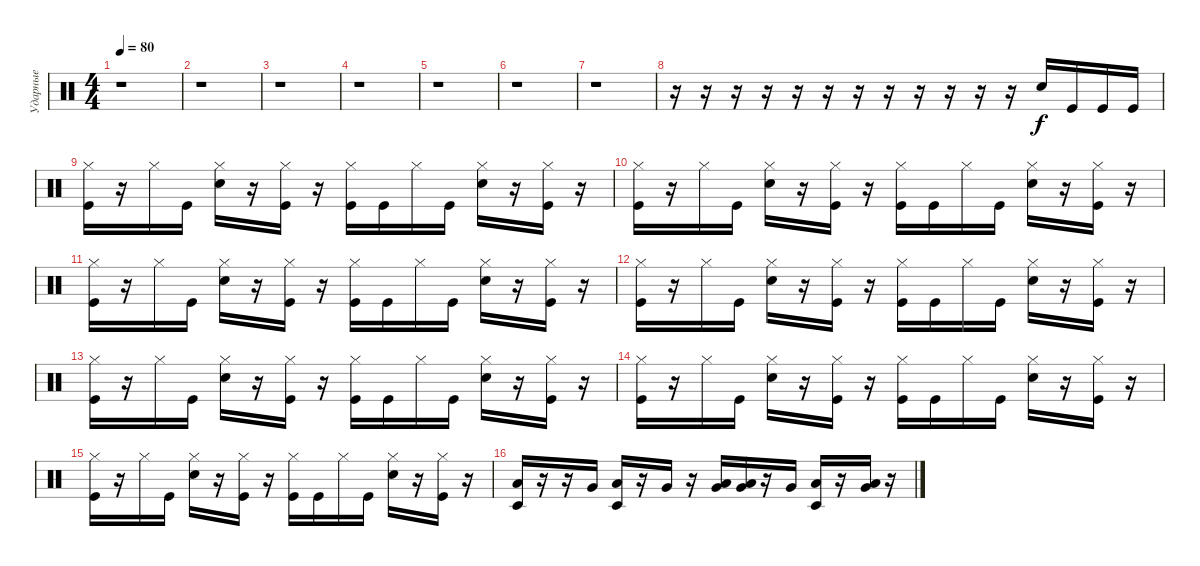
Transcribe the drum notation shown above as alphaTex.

\track ("Ударные" "Ударные") {instrument percussion}
\staff {score}
\articulation defaults
\ts (4 4)
\tempo 80
\clef neutral
\ks c
r.1{dy f} |
r.1 |
r.1 |
r.1 |
r.1 |
r.1 |
r.1 |
r.16 r.16 r.16 r.16 r.16 r.16 r.16 r.16 r.16 r.16 r.16 r.16 "Electric Snare (hit)".16 "Kick (hit)".16 "Kick (hit)".16 "Kick (hit)".16 |
("Hi-Hat (closed)" "Kick (hit)").16 r.16 "Hi-Hat (closed)".16 "Kick (hit)".16 ("Hi-Hat (closed)" "Electric Snare (hit)").16 r.16 ("Hi-Hat (closed)" "Kick (hit)").16 r.16 ("Hi-Hat (closed)" "Kick (hit)").16 "Kick (hit)".16 "Hi-Hat (closed)".16 "Kick (hit)".16 ("Hi-Hat (closed)" "Electric Snare (hit)").16 r.16 ("Hi-Hat (closed)" "Kick (hit)").16 r.16 |
("Hi-Hat (closed)" "Kick (hit)").16 r.16 "Hi-Hat (closed)".16 "Kick (hit)".16 ("Hi-Hat (closed)" "Electric Snare (hit)").16 r.16 ("Hi-Hat (closed)" "Kick (hit)").16 r.16 ("Hi-Hat (closed)" "Kick (hit)").16 "Kick (hit)".16 "Hi-Hat (closed)".16 "Kick (hit)".16 ("Hi-Hat (closed)" "Electric Snare (hit)").16 r.16 ("Hi-Hat (closed)" "Kick (hit)").16 r.16 |
("Hi-Hat (closed)" "Kick (hit)").16 r.16 "Hi-Hat (closed)".16 "Kick (hit)".16 ("Hi-Hat (closed)" "Electric Snare (hit)").16 r.16 ("Hi-Hat (closed)" "Kick (hit)").16 r.16 ("Hi-Hat (closed)" "Kick (hit)").16 "Kick (hit)".16 "Hi-Hat (closed)".16 "Kick (hit)".16 ("Hi-Hat (closed)" "Electric Snare (hit)").16 r.16 ("Hi-Hat (closed)" "Kick (hit)").16 r.16 |
("Hi-Hat (closed)" "Kick (hit)").16 r.16 "Hi-Hat (closed)".16 "Kick (hit)".16 ("Hi-Hat (closed)" "Electric Snare (hit)").16 r.16 ("Hi-Hat (closed)" "Kick (hit)").16 r.16 ("Hi-Hat (closed)" "Kick (hit)").16 "Kick (hit)".16 "Hi-Hat (closed)".16 "Kick (hit)".16 ("Hi-Hat (closed)" "Electric Snare (hit)").16 r.16 ("Hi-Hat (closed)" "Kick (hit)").16 r.16 |
("Hi-Hat (closed)" "Kick (hit)").16 r.16 "Hi-Hat (closed)".16 "Kick (hit)".16 ("Hi-Hat (closed)" "Electric Snare (hit)").16 r.16 ("Hi-Hat (closed)" "Kick (hit)").16 r.16 ("Hi-Hat (closed)" "Kick (hit)").16 "Kick (hit)".16 "Hi-Hat (closed)".16 "Kick (hit)".16 ("Hi-Hat (closed)" "Electric Snare (hit)").16 r.16 ("Hi-Hat (closed)" "Kick (hit)").16 r.16 |
("Hi-Hat (closed)" "Kick (hit)").16 r.16 "Hi-Hat (closed)".16 "Kick (hit)".16 ("Hi-Hat (closed)" "Electric Snare (hit)").16 r.16 ("Hi-Hat (closed)" "Kick (hit)").16 r.16 ("Hi-Hat (closed)" "Kick (hit)").16 "Kick (hit)".16 "Hi-Hat (closed)".16 "Kick (hit)".16 ("Hi-Hat (closed)" "Electric Snare (hit)").16 r.16 ("Hi-Hat (closed)" "Kick (hit)").16 r.16 |
("Hi-Hat (closed)" "Kick (hit)").16 r.16 "Hi-Hat (closed)".16 "Kick (hit)".16 ("Hi-Hat (closed)" "Electric Snare (hit)").16 r.16 ("Hi-Hat (closed)" "Kick (hit)").16 r.16 ("Hi-Hat (closed)" "Kick (hit)").16 "Kick (hit)".16 "Hi-Hat (closed)".16 "Kick (hit)".16 ("Hi-Hat (closed)" "Electric Snare (hit)").16 r.16 ("Hi-Hat (closed)" "Kick (hit)").16 r.16 |
("Timbale low (hit)" "Low Floor Tom (hit)").16 r.16 r.16 "Very Low Tom (hit)".16 ("Timbale low (hit)" "Low Floor Tom (hit)").16 r.16 "Very Low Tom (hit)".16 r.16 ("Low Floor Tom (hit)" "Very Low Tom (hit)").16 ("Low Floor Tom (hit)" "Very Low Tom (hit)").16 r.16 "Very Low Tom (hit)".16 ("Timbale low (hit)" "Low Floor Tom (hit)").16 r.16 ("Low Floor Tom (hit)" "Very Low Tom (hit)").16 r.16
